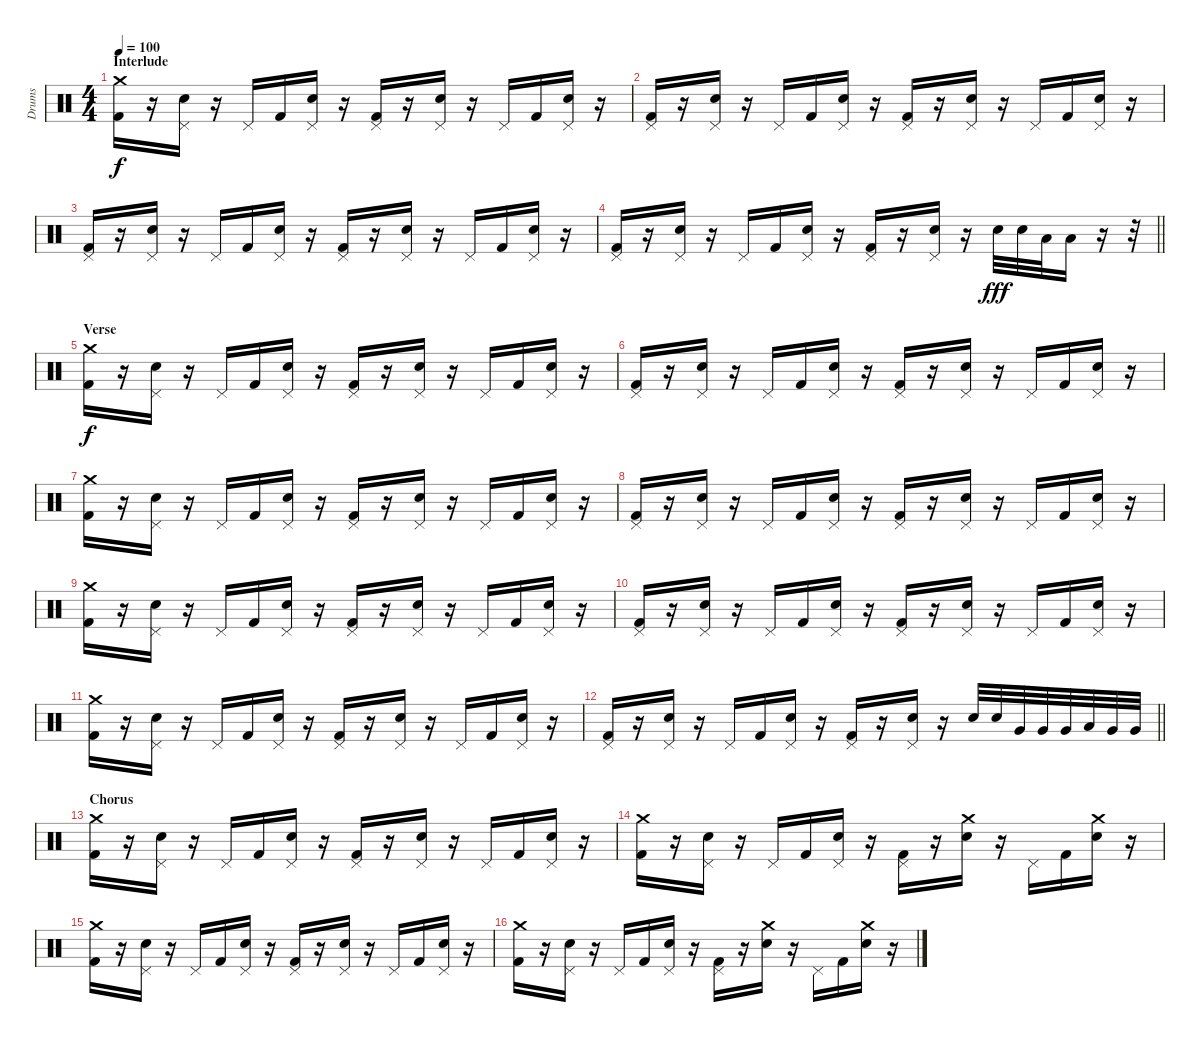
\track ("Drums" "Drums") {instrument percussion}
\staff {score}
\articulation defaults
\ts (4 4)
\section ("" "Interlude")
\tempo 100
\clef neutral
\ks c
("Crash medium (hit)" "Kick (hit) 2").16{dy f} r.16 ("Pedal Hi-Hat (hit)" "Electric Snare (hit)").16 r.16 "Pedal Hi-Hat (hit)".16 "Kick (hit) 2".16 ("Pedal Hi-Hat (hit)" "Electric Snare (hit)").16 r.16 ("Pedal Hi-Hat (hit)" "Kick (hit) 2").16 r.16 ("Pedal Hi-Hat (hit)" "Electric Snare (hit)").16 r.16 "Pedal Hi-Hat (hit)".16 "Kick (hit) 2".16 ("Pedal Hi-Hat (hit)" "Electric Snare (hit)").16 r.16 |
("Pedal Hi-Hat (hit)" "Kick (hit) 2").16 r.16 ("Pedal Hi-Hat (hit)" "Electric Snare (hit)").16 r.16 "Pedal Hi-Hat (hit)".16 "Kick (hit) 2".16 ("Pedal Hi-Hat (hit)" "Electric Snare (hit)").16 r.16 ("Pedal Hi-Hat (hit)" "Kick (hit) 2").16 r.16 ("Pedal Hi-Hat (hit)" "Electric Snare (hit)").16 r.16 "Pedal Hi-Hat (hit)".16 "Kick (hit) 2".16 ("Pedal Hi-Hat (hit)" "Electric Snare (hit)").16 r.16 |
("Pedal Hi-Hat (hit)" "Kick (hit) 2").16 r.16 ("Pedal Hi-Hat (hit)" "Electric Snare (hit)").16 r.16 "Pedal Hi-Hat (hit)".16 "Kick (hit) 2".16 ("Pedal Hi-Hat (hit)" "Electric Snare (hit)").16 r.16 ("Pedal Hi-Hat (hit)" "Kick (hit) 2").16 r.16 ("Pedal Hi-Hat (hit)" "Electric Snare (hit)").16 r.16 "Pedal Hi-Hat (hit)".16 "Kick (hit) 2".16 ("Pedal Hi-Hat (hit)" "Electric Snare (hit)").16 r.16 |
\barLineRight lightlight
("Pedal Hi-Hat (hit)" "Kick (hit) 2").16 r.16 ("Pedal Hi-Hat (hit)" "Electric Snare (hit)").16 r.16 "Pedal Hi-Hat (hit)".16 "Kick (hit) 2".16 ("Pedal Hi-Hat (hit)" "Electric Snare (hit)").16 r.16 ("Pedal Hi-Hat (hit)" "Kick (hit) 2").16 r.16 ("Pedal Hi-Hat (hit)" "Electric Snare (hit)").16 r.16 "Electric Snare (hit)".32{dy fff} "Electric Snare (hit)".32 "Low Tom (hit)".32 "Low Floor Tom (hit)".16 r.16 r.32 |
\section ("" "Verse")
("Crash medium (hit)" "Kick (hit) 2").16{dy f} r.16 ("Pedal Hi-Hat (hit)" "Electric Snare (hit)").16 r.16 "Pedal Hi-Hat (hit)".16 "Kick (hit) 2".16 ("Pedal Hi-Hat (hit)" "Electric Snare (hit)").16 r.16 ("Pedal Hi-Hat (hit)" "Kick (hit) 2").16 r.16 ("Pedal Hi-Hat (hit)" "Electric Snare (hit)").16 r.16 "Pedal Hi-Hat (hit)".16 "Kick (hit) 2".16 ("Pedal Hi-Hat (hit)" "Electric Snare (hit)").16 r.16 |
("Pedal Hi-Hat (hit)" "Kick (hit) 2").16 r.16 ("Pedal Hi-Hat (hit)" "Electric Snare (hit)").16 r.16 "Pedal Hi-Hat (hit)".16 "Kick (hit) 2".16 ("Pedal Hi-Hat (hit)" "Electric Snare (hit)").16 r.16 ("Pedal Hi-Hat (hit)" "Kick (hit) 2").16 r.16 ("Pedal Hi-Hat (hit)" "Electric Snare (hit)").16 r.16 "Pedal Hi-Hat (hit)".16 "Kick (hit) 2".16 ("Pedal Hi-Hat (hit)" "Electric Snare (hit)").16 r.16 |
("Crash medium (hit)" "Kick (hit) 2").16 r.16 ("Pedal Hi-Hat (hit)" "Electric Snare (hit)").16 r.16 "Pedal Hi-Hat (hit)".16 "Kick (hit) 2".16 ("Pedal Hi-Hat (hit)" "Electric Snare (hit)").16 r.16 ("Pedal Hi-Hat (hit)" "Kick (hit) 2").16 r.16 ("Pedal Hi-Hat (hit)" "Electric Snare (hit)").16 r.16 "Pedal Hi-Hat (hit)".16 "Kick (hit) 2".16 ("Pedal Hi-Hat (hit)" "Electric Snare (hit)").16 r.16 |
("Pedal Hi-Hat (hit)" "Kick (hit) 2").16 r.16 ("Pedal Hi-Hat (hit)" "Electric Snare (hit)").16 r.16 "Pedal Hi-Hat (hit)".16 "Kick (hit) 2".16 ("Pedal Hi-Hat (hit)" "Electric Snare (hit)").16 r.16 ("Pedal Hi-Hat (hit)" "Kick (hit) 2").16 r.16 ("Pedal Hi-Hat (hit)" "Electric Snare (hit)").16 r.16 "Pedal Hi-Hat (hit)".16 "Kick (hit) 2".16 ("Pedal Hi-Hat (hit)" "Electric Snare (hit)").16 r.16 |
("Crash medium (hit)" "Kick (hit) 2").16 r.16 ("Pedal Hi-Hat (hit)" "Electric Snare (hit)").16 r.16 "Pedal Hi-Hat (hit)".16 "Kick (hit) 2".16 ("Pedal Hi-Hat (hit)" "Electric Snare (hit)").16 r.16 ("Pedal Hi-Hat (hit)" "Kick (hit) 2").16 r.16 ("Pedal Hi-Hat (hit)" "Electric Snare (hit)").16 r.16 "Pedal Hi-Hat (hit)".16 "Kick (hit) 2".16 ("Pedal Hi-Hat (hit)" "Electric Snare (hit)").16 r.16 |
("Pedal Hi-Hat (hit)" "Kick (hit) 2").16 r.16 ("Pedal Hi-Hat (hit)" "Electric Snare (hit)").16 r.16 "Pedal Hi-Hat (hit)".16 "Kick (hit) 2".16 ("Pedal Hi-Hat (hit)" "Electric Snare (hit)").16 r.16 ("Pedal Hi-Hat (hit)" "Kick (hit) 2").16 r.16 ("Pedal Hi-Hat (hit)" "Electric Snare (hit)").16 r.16 "Pedal Hi-Hat (hit)".16 "Kick (hit) 2".16 ("Pedal Hi-Hat (hit)" "Electric Snare (hit)").16 r.16 |
("Crash medium (hit)" "Kick (hit) 2").16 r.16 ("Pedal Hi-Hat (hit)" "Electric Snare (hit)").16 r.16 "Pedal Hi-Hat (hit)".16 "Kick (hit) 2".16 ("Pedal Hi-Hat (hit)" "Electric Snare (hit)").16 r.16 ("Pedal Hi-Hat (hit)" "Kick (hit) 2").16 r.16 ("Pedal Hi-Hat (hit)" "Electric Snare (hit)").16 r.16 "Pedal Hi-Hat (hit)".16 "Kick (hit) 2".16 ("Pedal Hi-Hat (hit)" "Electric Snare (hit)").16 r.16 |
\barLineRight lightlight
("Pedal Hi-Hat (hit)" "Kick (hit) 2").16 r.16 ("Pedal Hi-Hat (hit)" "Electric Snare (hit)").16 r.16 "Pedal Hi-Hat (hit)".16 "Kick (hit) 2".16 ("Pedal Hi-Hat (hit)" "Electric Snare (hit)").16 r.16 ("Pedal Hi-Hat (hit)" "Kick (hit) 2").16 r.16 ("Pedal Hi-Hat (hit)" "Electric Snare (hit)").16 r.16 "Electric Snare (hit)".32 "Electric Snare (hit)".32 "Very Low Tom (hit)".32 "Very Low Tom (hit)".32 "Very Low Tom (hit)".32 "Low Tom (hit)".32 "Very Low Tom (hit)".32 "Very Low Tom (hit)".32 |
\section ("" "Chorus")
("Crash medium (hit)" "Kick (hit) 2").16 r.16 ("Pedal Hi-Hat (hit)" "Electric Snare (hit)").16 r.16 "Pedal Hi-Hat (hit)".16 "Kick (hit) 2".16 ("Pedal Hi-Hat (hit)" "Electric Snare (hit)").16 r.16 ("Pedal Hi-Hat (hit)" "Kick (hit) 2").16 r.16 ("Pedal Hi-Hat (hit)" "Electric Snare (hit)").16 r.16 "Pedal Hi-Hat (hit)".16 "Kick (hit) 2".16 ("Pedal Hi-Hat (hit)" "Electric Snare (hit)").16 r.16 |
("Crash medium (hit)" "Kick (hit) 2").16 r.16 ("Pedal Hi-Hat (hit)" "Electric Snare (hit)").16 r.16 "Pedal Hi-Hat (hit)".16 "Kick (hit) 2".16 ("Pedal Hi-Hat (hit)" "Electric Snare (hit)").16 r.16 ("Pedal Hi-Hat (hit)" "Kick (hit) 2").16 r.16 ("Crash medium (hit)" "Electric Snare (hit)").16 r.16 "Pedal Hi-Hat (hit)".16 "Kick (hit) 2".16 ("Crash medium (hit)" "Electric Snare (hit)").16 r.16 |
("Crash medium (hit)" "Kick (hit) 2").16 r.16 ("Pedal Hi-Hat (hit)" "Electric Snare (hit)").16 r.16 "Pedal Hi-Hat (hit)".16 "Kick (hit) 2".16 ("Pedal Hi-Hat (hit)" "Electric Snare (hit)").16 r.16 ("Pedal Hi-Hat (hit)" "Kick (hit) 2").16 r.16 ("Pedal Hi-Hat (hit)" "Electric Snare (hit)").16 r.16 "Pedal Hi-Hat (hit)".16 "Kick (hit) 2".16 ("Pedal Hi-Hat (hit)" "Electric Snare (hit)").16 r.16 |
("Crash medium (hit)" "Kick (hit) 2").16 r.16 ("Pedal Hi-Hat (hit)" "Electric Snare (hit)").16 r.16 "Pedal Hi-Hat (hit)".16 "Kick (hit) 2".16 ("Pedal Hi-Hat (hit)" "Electric Snare (hit)").16 r.16 ("Pedal Hi-Hat (hit)" "Kick (hit) 2").16 r.16 ("Crash medium (hit)" "Electric Snare (hit)").16 r.16 "Pedal Hi-Hat (hit)".16 "Kick (hit) 2".16 ("Crash medium (hit)" "Electric Snare (hit)").16 r.16
